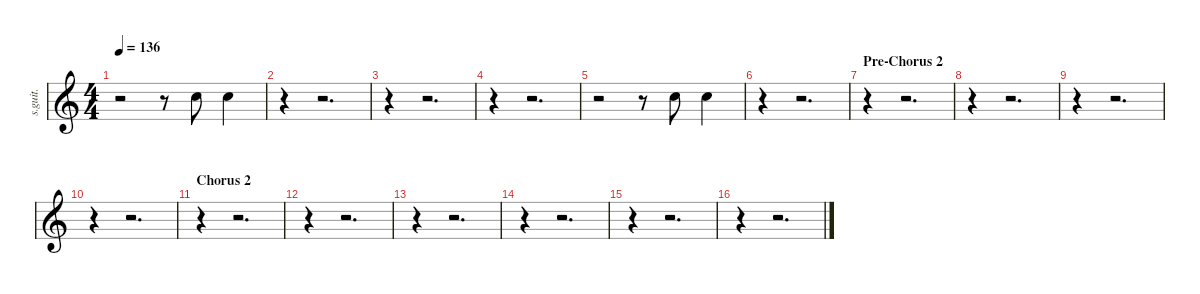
\defaultSystemsLayout 4
\hideDynamics
\bracketExtendMode nobrackets
\track ("(Hand Claps)" "s.guit.") {instrument percussion}
\staff {score}
\articulation defaults
\ts (4 4)
\tempo 136
\clef g2
\ks c
r.2{dy f} r.8 "Hand Clap (hit)".8{lyrics (0 "") lyrics (1 "") lyrics (2 "") lyrics (3 "") lyrics (4 "")} "Hand Clap (hit)".4{lyrics (0 "") lyrics (1 "") lyrics (2 "") lyrics (3 "") lyrics (4 "")} |
r.4 r.2{d} |
r.4 r.2{d} |
r.4 r.2{d} |
r.2 r.8 "Hand Clap (hit)".8{lyrics (0 "") lyrics (1 "") lyrics (2 "") lyrics (3 "") lyrics (4 "")} "Hand Clap (hit)".4{lyrics (0 "") lyrics (1 "") lyrics (2 "") lyrics (3 "") lyrics (4 "")} |
r.4 r.2{d} |
\section ("" "Pre-Chorus 2")
r.4 r.2{d} |
r.4 r.2{d} |
r.4 r.2{d} |
r.4 r.2{d} |
\section ("" "Chorus 2")
r.4 r.2{d} |
r.4 r.2{d} |
r.4 r.2{d} |
r.4 r.2{d} |
r.4 r.2{d} |
r.4 r.2{d}
